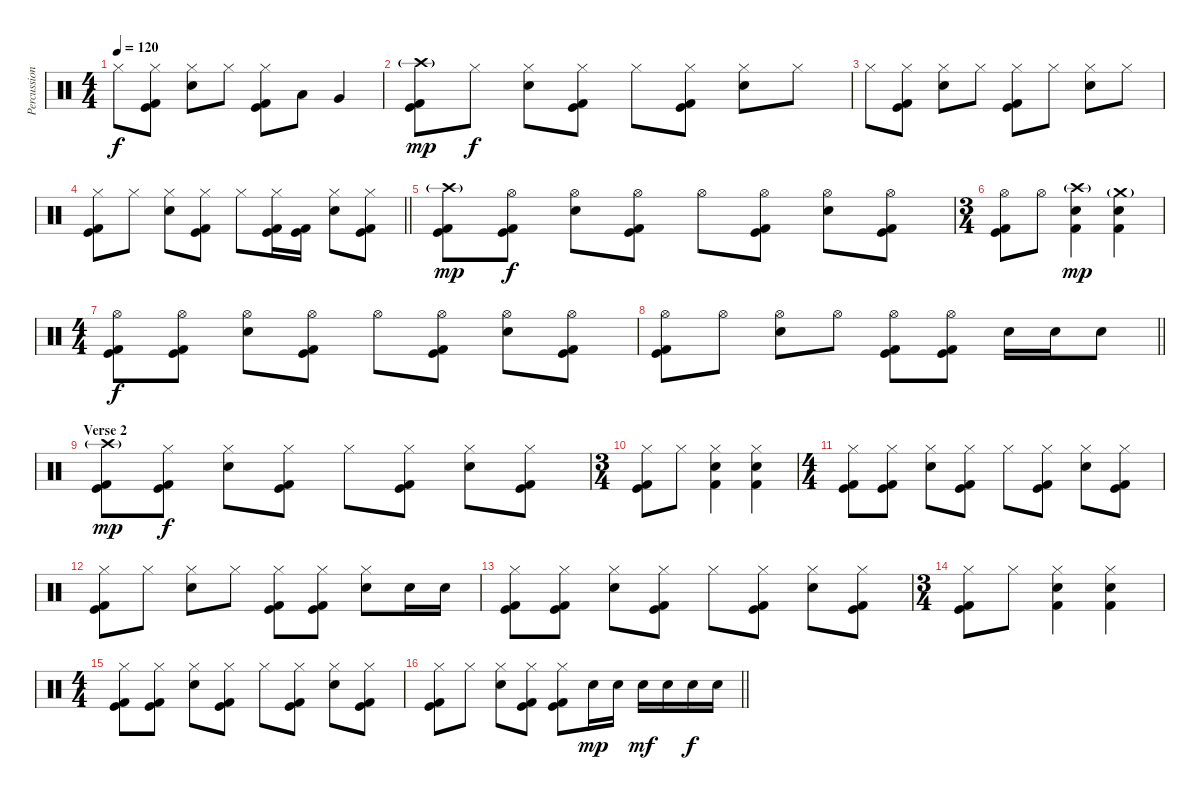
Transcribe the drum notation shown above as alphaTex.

\track ("Percussion" "Percussion") {instrument percussion}
\staff {score}
\articulation defaults
\ts (4 4)
\tempo 120
\clef neutral
\ks c "Hi-Hat (closed)".8{dy f}
("Hi-Hat (closed)" "Kick (hit)" "Kick (hit) 2").8 ("Hi-Hat (closed)" "Electric Snare (hit)").8 "Hi-Hat (closed)".8 ("Hi-Hat (closed)" "Kick (hit)" "Kick (hit) 2").8 "Low Tom (hit)".8 "Very Low Tom (hit)".4 |
("Crash high (hit)"{g} "Kick (hit)" "Kick (hit) 2").8{dy mp} "Hi-Hat (closed)".8{dy f} ("Hi-Hat (closed)" "Electric Snare (hit)").8 ("Hi-Hat (closed)" "Kick (hit)" "Kick (hit) 2").8 "Hi-Hat (closed)".8 ("Hi-Hat (closed)" "Kick (hit)" "Kick (hit) 2").8 ("Hi-Hat (closed)" "Electric Snare (hit)").8 "Hi-Hat (closed)".8 |
"Hi-Hat (closed)".8 ("Hi-Hat (closed)" "Kick (hit)" "Kick (hit) 2").8 ("Hi-Hat (closed)" "Electric Snare (hit)").8 "Hi-Hat (closed)".8 ("Hi-Hat (closed)" "Kick (hit)" "Kick (hit) 2").8 "Hi-Hat (closed)".8 ("Hi-Hat (closed)" "Electric Snare (hit)").8 "Hi-Hat (closed)".8 |
\barLineRight lightlight
("Hi-Hat (closed)" "Kick (hit)" "Kick (hit) 2").8 "Hi-Hat (closed)".8 ("Hi-Hat (closed)" "Electric Snare (hit)").8 ("Hi-Hat (closed)" "Kick (hit)" "Kick (hit) 2").8 "Hi-Hat (closed)".8 ("Hi-Hat (closed)" "Kick (hit)" "Kick (hit) 2").16 ("Kick (hit)" "Kick (hit) 2").16 ("Hi-Hat (closed)" "Electric Snare (hit)").8 ("Hi-Hat (closed)" "Kick (hit)" "Kick (hit) 2").8 |
\section ("" "")
("Crash high (hit)"{g} "Kick (hit)" "Kick (hit) 2").8{dy mp} ("Hi-Hat (open)" "Kick (hit)" "Kick (hit) 2").8{dy f} ("Hi-Hat (open)" "Electric Snare (hit)").8 ("Hi-Hat (open)" "Kick (hit)" "Kick (hit) 2").8 "Hi-Hat (open)".8 ("Hi-Hat (open)" "Kick (hit)" "Kick (hit) 2").8 ("Hi-Hat (open)" "Electric Snare (hit)").8 ("Hi-Hat (open)" "Kick (hit)" "Kick (hit) 2").8 |
\ts (3 4)
("Hi-Hat (open)" "Kick (hit)" "Kick (hit) 2").8 "Hi-Hat (open)".8 ("Crash high (hit)"{g} "Electric Snare (hit)" "Kick (hit) 2").4{dy mp} ("Crash medium (hit)"{g} "Electric Snare (hit)" "Kick (hit) 2").4 |
\ts (4 4)
("Hi-Hat (open)" "Kick (hit)" "Kick (hit) 2").8{dy f} ("Hi-Hat (open)" "Kick (hit)" "Kick (hit) 2").8 ("Hi-Hat (open)" "Electric Snare (hit)").8 ("Hi-Hat (open)" "Kick (hit)" "Kick (hit) 2").8 "Hi-Hat (open)".8 ("Hi-Hat (open)" "Kick (hit)" "Kick (hit) 2").8 ("Hi-Hat (open)" "Electric Snare (hit)").8 ("Hi-Hat (open)" "Kick (hit)" "Kick (hit) 2").8 |
\barLineRight lightlight
("Hi-Hat (open)" "Kick (hit)" "Kick (hit) 2").8 "Hi-Hat (open)".8 ("Hi-Hat (open)" "Electric Snare (hit)").8 "Hi-Hat (open)".8 ("Hi-Hat (open)" "Kick (hit)" "Kick (hit) 2").8 ("Hi-Hat (open)" "Kick (hit)" "Kick (hit) 2").8 "Electric Snare (hit)".16 "Electric Snare (hit)".16 "Electric Snare (hit)".8 |
\section ("" "Verse 2")
("Crash high (hit)"{g} "Kick (hit)" "Kick (hit) 2").8{dy mp} ("Hi-Hat (closed)" "Kick (hit)" "Kick (hit) 2").8{dy f} ("Hi-Hat (closed)" "Electric Snare (hit)").8 ("Hi-Hat (closed)" "Kick (hit)" "Kick (hit) 2").8 "Hi-Hat (closed)".8 ("Hi-Hat (closed)" "Kick (hit)" "Kick (hit) 2").8 ("Hi-Hat (closed)" "Electric Snare (hit)").8 ("Hi-Hat (closed)" "Kick (hit)" "Kick (hit) 2").8 |
\ts (3 4)
("Hi-Hat (closed)" "Kick (hit)" "Kick (hit) 2").8 "Hi-Hat (closed)".8 ("Hi-Hat (closed)" "Electric Snare (hit)" "Kick (hit) 2").4 ("Hi-Hat (closed)" "Electric Snare (hit)" "Kick (hit) 2").4 |
\ts (4 4)
("Hi-Hat (closed)" "Kick (hit)" "Kick (hit) 2").8 ("Hi-Hat (closed)" "Kick (hit)" "Kick (hit) 2").8 ("Hi-Hat (closed)" "Electric Snare (hit)").8 ("Hi-Hat (closed)" "Kick (hit)" "Kick (hit) 2").8 "Hi-Hat (closed)".8 ("Hi-Hat (closed)" "Kick (hit)" "Kick (hit) 2").8 ("Hi-Hat (closed)" "Electric Snare (hit)").8 ("Hi-Hat (closed)" "Kick (hit)" "Kick (hit) 2").8 |
("Hi-Hat (closed)" "Kick (hit)" "Kick (hit) 2").8 "Hi-Hat (closed)".8 ("Hi-Hat (closed)" "Electric Snare (hit)").8 "Hi-Hat (closed)".8 ("Hi-Hat (closed)" "Kick (hit)" "Kick (hit) 2").8 ("Hi-Hat (closed)" "Kick (hit)" "Kick (hit) 2").8 ("Hi-Hat (closed)" "Electric Snare (hit)").8 "Electric Snare (hit)".16 "Electric Snare (hit)".16 |
("Hi-Hat (closed)" "Kick (hit)" "Kick (hit) 2").8 ("Hi-Hat (closed)" "Kick (hit)" "Kick (hit) 2").8 ("Hi-Hat (closed)" "Electric Snare (hit)").8 ("Hi-Hat (closed)" "Kick (hit)" "Kick (hit) 2").8 "Hi-Hat (closed)".8 ("Hi-Hat (closed)" "Kick (hit)" "Kick (hit) 2").8 ("Hi-Hat (closed)" "Electric Snare (hit)").8 ("Hi-Hat (closed)" "Kick (hit)" "Kick (hit) 2").8 |
\ts (3 4)
("Hi-Hat (closed)" "Kick (hit)" "Kick (hit) 2").8 "Hi-Hat (closed)".8 ("Hi-Hat (closed)" "Electric Snare (hit)" "Kick (hit) 2").4 ("Hi-Hat (closed)" "Electric Snare (hit)" "Kick (hit) 2").4 |
\ts (4 4)
("Hi-Hat (closed)" "Kick (hit)" "Kick (hit) 2").8 ("Hi-Hat (closed)" "Kick (hit)" "Kick (hit) 2").8 ("Hi-Hat (closed)" "Electric Snare (hit)").8 ("Hi-Hat (closed)" "Kick (hit)" "Kick (hit) 2").8 "Hi-Hat (closed)".8 ("Hi-Hat (closed)" "Kick (hit)" "Kick (hit) 2").8 ("Hi-Hat (closed)" "Electric Snare (hit)").8 ("Hi-Hat (closed)" "Kick (hit)" "Kick (hit) 2").8 |
\barLineRight lightlight
("Hi-Hat (closed)" "Kick (hit)" "Kick (hit) 2").8 "Hi-Hat (closed)".8 ("Hi-Hat (closed)" "Electric Snare (hit)").8 ("Hi-Hat (closed)" "Kick (hit)" "Kick (hit) 2").8 ("Hi-Hat (closed)" "Kick (hit)" "Kick (hit) 2").8 "Electric Snare (hit)".16{dy mp} "Electric Snare (hit)".16 "Electric Snare (hit)".16{dy mf} "Electric Snare (hit)".16 "Electric Snare (hit)".16{dy f} "Electric Snare (hit)".16
